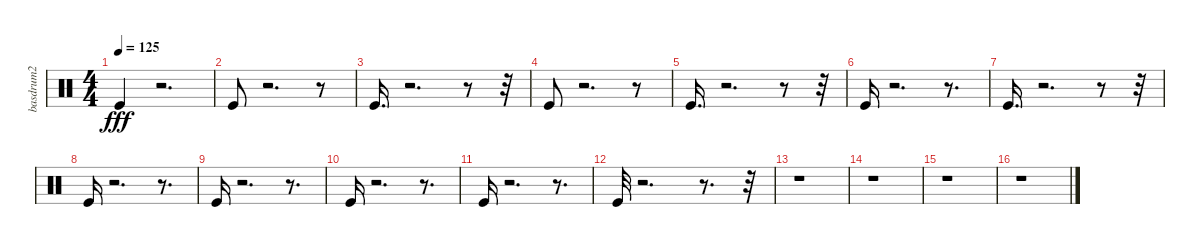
\track ("basdrum2" "basdrum2") {instrument percussion}
\staff {score}
\articulation defaults
\ts (4 4)
\tempo 125
\clef neutral
\ks c "Kick (hit)".4{dy fff}
r.2{d} |
"Kick (hit)".8 r.2{d} r.8 |
"Kick (hit)".16{d} r.2{d} r.8 r.32 |
"Kick (hit)".8 r.2{d} r.8 |
"Kick (hit)".16{d} r.2{d} r.8 r.32 |
"Kick (hit)".16 r.2{d} r.8{d} |
"Kick (hit)".16{d} r.2{d} r.8 r.32 |
"Kick (hit)".16 r.2{d} r.8{d} |
"Kick (hit)".16 r.2{d} r.8{d} |
"Kick (hit)".16 r.2{d} r.8{d} |
"Kick (hit)".16 r.2{d} r.8{d} |
"Kick (hit)".32 r.2{d} r.8{d} r.32 |
r.1 |
r.1 |
r.1 |
r.1
